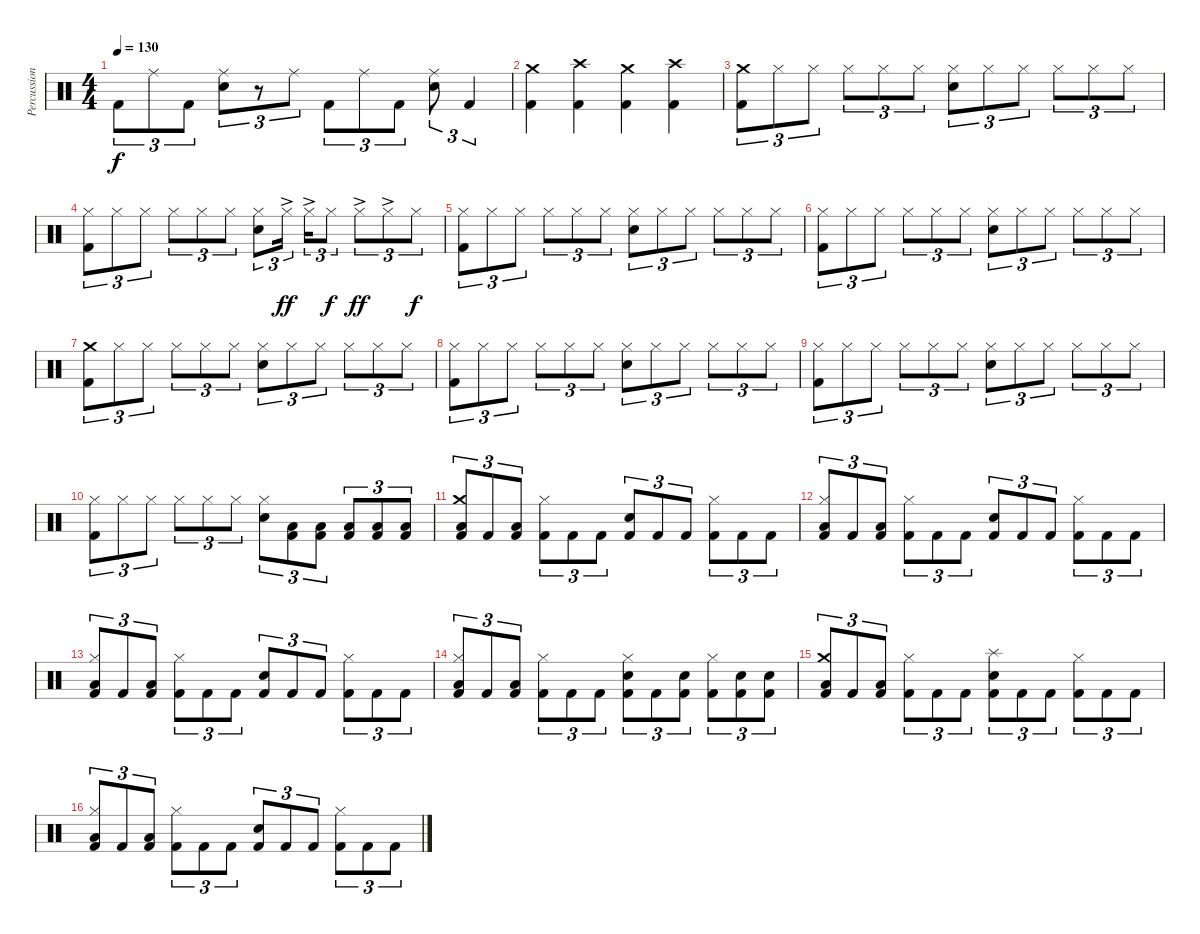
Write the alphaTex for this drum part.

\track ("Percussions" "Percussion") {instrument percussion}
\staff {score}
\articulation defaults
\ts (4 4)
\tempo 130
\clef neutral
\ks c "Kick (hit) 2".8{tu (3 2) dy f} "Ride (middle)".8{tu (3 2)} "Kick (hit) 2".8{tu (3 2)}
("Ride (middle)" "Electric Snare (hit)").8{tu (3 2)} r.8{tu (3 2)} "Ride (middle)".8{tu (3 2)} "Kick (hit) 2".8{tu (3 2)} "Ride (middle)".8{tu (3 2)} "Kick (hit) 2".8{tu (3 2)} ("Ride (middle)" "Electric Snare (hit)").8{tu (3 2)} "Kick (hit) 2".4{tu (3 2)} |
("Crash medium (hit)" "Kick (hit) 2").4 ("Crash high (hit)" "Kick (hit) 2").4 ("Crash medium (hit)" "Kick (hit) 2").4 ("Crash high (hit)" "Kick (hit) 2").4 |
("Crash medium (hit)" "Kick (hit) 2").8{tu (3 2)} "Hi-Hat (closed)".8{tu (3 2)} "Hi-Hat (closed)".8{tu (3 2)} "Hi-Hat (closed)".8{tu (3 2)} "Hi-Hat (closed)".8{tu (3 2)} "Hi-Hat (closed)".8{tu (3 2)} ("Hi-Hat (closed)" "Electric Snare (hit)").8{tu (3 2)} "Hi-Hat (closed)".8{tu (3 2)} "Hi-Hat (closed)".8{tu (3 2)} "Hi-Hat (closed)".8{tu (3 2)} "Hi-Hat (closed)".8{tu (3 2)} "Hi-Hat (closed)".8{tu (3 2)} |
("Hi-Hat (closed)" "Kick (hit) 2").8{tu (3 2)} "Hi-Hat (closed)".8{tu (3 2)} "Hi-Hat (closed)".8{tu (3 2)} "Hi-Hat (closed)".8{tu (3 2)} "Hi-Hat (closed)".8{tu (3 2)} "Hi-Hat (closed)".8{tu (3 2)} ("Hi-Hat (closed)" "Electric Snare (hit)").8{tu (3 2)} "Hi-Hat (closed)"{ac}.16{tu (3 2) dy ff beam splitsecondary} "Hi-Hat (closed)"{ac}.16{tu (3 2)} "Hi-Hat (closed)".8{tu (3 2) dy f} "Hi-Hat (closed)"{ac}.8{tu (3 2) dy ff} "Hi-Hat (closed)"{ac}.8{tu (3 2)} "Hi-Hat (closed)".8{tu (3 2) dy f} |
("Hi-Hat (closed)" "Kick (hit) 2").8{tu (3 2)} "Hi-Hat (closed)".8{tu (3 2)} "Hi-Hat (closed)".8{tu (3 2)} "Hi-Hat (closed)".8{tu (3 2)} "Hi-Hat (closed)".8{tu (3 2)} "Hi-Hat (closed)".8{tu (3 2)} ("Hi-Hat (closed)" "Electric Snare (hit)").8{tu (3 2)} "Hi-Hat (closed)".8{tu (3 2)} "Hi-Hat (closed)".8{tu (3 2)} "Hi-Hat (closed)".8{tu (3 2)} "Hi-Hat (closed)".8{tu (3 2)} "Hi-Hat (closed)".8{tu (3 2)} |
("Hi-Hat (closed)" "Kick (hit) 2").8{tu (3 2)} "Hi-Hat (closed)".8{tu (3 2)} "Hi-Hat (closed)".8{tu (3 2)} "Hi-Hat (closed)".8{tu (3 2)} "Hi-Hat (closed)".8{tu (3 2)} "Hi-Hat (closed)".8{tu (3 2)} ("Hi-Hat (closed)" "Electric Snare (hit)").8{tu (3 2)} "Hi-Hat (closed)".8{tu (3 2)} "Hi-Hat (closed)".8{tu (3 2)} "Hi-Hat (closed)".8{tu (3 2)} "Hi-Hat (closed)".8{tu (3 2)} "Hi-Hat (closed)".8{tu (3 2)} |
("Crash medium (hit)" "Kick (hit) 2").8{tu (3 2)} "Hi-Hat (closed)".8{tu (3 2)} "Hi-Hat (closed)".8{tu (3 2)} "Hi-Hat (closed)".8{tu (3 2)} "Hi-Hat (closed)".8{tu (3 2)} "Hi-Hat (closed)".8{tu (3 2)} ("Hi-Hat (closed)" "Electric Snare (hit)").8{tu (3 2)} "Hi-Hat (closed)".8{tu (3 2)} "Hi-Hat (closed)".8{tu (3 2)} "Hi-Hat (closed)".8{tu (3 2)} "Hi-Hat (closed)".8{tu (3 2)} "Hi-Hat (closed)".8{tu (3 2)} |
("Hi-Hat (closed)" "Kick (hit) 2").8{tu (3 2)} "Hi-Hat (closed)".8{tu (3 2)} "Hi-Hat (closed)".8{tu (3 2)} "Hi-Hat (closed)".8{tu (3 2)} "Hi-Hat (closed)".8{tu (3 2)} "Hi-Hat (closed)".8{tu (3 2)} ("Hi-Hat (closed)" "Electric Snare (hit)").8{tu (3 2)} "Hi-Hat (closed)".8{tu (3 2)} "Hi-Hat (closed)".8{tu (3 2)} "Hi-Hat (closed)".8{tu (3 2)} "Hi-Hat (closed)".8{tu (3 2)} "Hi-Hat (closed)".8{tu (3 2)} |
("Hi-Hat (closed)" "Kick (hit) 2").8{tu (3 2)} "Hi-Hat (closed)".8{tu (3 2)} "Hi-Hat (closed)".8{tu (3 2)} "Hi-Hat (closed)".8{tu (3 2)} "Hi-Hat (closed)".8{tu (3 2)} "Hi-Hat (closed)".8{tu (3 2)} ("Hi-Hat (closed)" "Electric Snare (hit)").8{tu (3 2)} "Hi-Hat (closed)".8{tu (3 2)} "Hi-Hat (closed)".8{tu (3 2)} "Hi-Hat (closed)".8{tu (3 2)} "Hi-Hat (closed)".8{tu (3 2)} "Hi-Hat (closed)".8{tu (3 2)} |
("Hi-Hat (closed)" "Kick (hit) 2").8{tu (3 2)} "Hi-Hat (closed)".8{tu (3 2)} "Hi-Hat (closed)".8{tu (3 2)} "Hi-Hat (closed)".8{tu (3 2)} "Hi-Hat (closed)".8{tu (3 2)} "Hi-Hat (closed)".8{tu (3 2)} ("Hi-Hat (closed)" "Electric Snare (hit)").8{tu (3 2)} ("Low Tom (hit)" "Kick (hit) 2").8{tu (3 2)} ("Low Tom (hit)" "Kick (hit) 2").8{tu (3 2)} ("Low Tom (hit)" "Kick (hit) 2").8{tu (3 2)} ("Low Tom (hit)" "Kick (hit) 2").8{tu (3 2)} ("Low Tom (hit)" "Kick (hit) 2").8{tu (3 2)} |
("Crash medium (hit)" "Low Tom (hit)" "Kick (hit) 2").8{tu (3 2)} "Kick (hit) 2".8{tu (3 2)} ("Low Tom (hit)" "Kick (hit) 2").8{tu (3 2)} ("Hi-Hat (closed)" "Kick (hit) 2").8{tu (3 2)} "Kick (hit) 2".8{tu (3 2)} "Kick (hit) 2".8{tu (3 2)} ("Electric Snare (hit)" "Kick (hit) 2").8{tu (3 2)} "Kick (hit) 2".8{tu (3 2)} "Kick (hit) 2".8{tu (3 2)} ("Hi-Hat (closed)" "Kick (hit) 2").8{tu (3 2)} "Kick (hit) 2".8{tu (3 2)} "Kick (hit) 2".8{tu (3 2)} |
("Hi-Hat (closed)" "Low Tom (hit)" "Kick (hit) 2").8{tu (3 2)} "Kick (hit) 2".8{tu (3 2)} ("Low Tom (hit)" "Kick (hit) 2").8{tu (3 2)} ("Hi-Hat (closed)" "Kick (hit) 2").8{tu (3 2)} "Kick (hit) 2".8{tu (3 2)} "Kick (hit) 2".8{tu (3 2)} ("Electric Snare (hit)" "Kick (hit) 2").8{tu (3 2)} "Kick (hit) 2".8{tu (3 2)} "Kick (hit) 2".8{tu (3 2)} ("Hi-Hat (closed)" "Kick (hit) 2").8{tu (3 2)} "Kick (hit) 2".8{tu (3 2)} "Kick (hit) 2".8{tu (3 2)} |
("Hi-Hat (closed)" "Low Tom (hit)" "Kick (hit) 2").8{tu (3 2)} "Kick (hit) 2".8{tu (3 2)} ("Low Tom (hit)" "Kick (hit) 2").8{tu (3 2)} ("Hi-Hat (closed)" "Kick (hit) 2").8{tu (3 2)} "Kick (hit) 2".8{tu (3 2)} "Kick (hit) 2".8{tu (3 2)} ("Electric Snare (hit)" "Kick (hit) 2").8{tu (3 2)} "Kick (hit) 2".8{tu (3 2)} "Kick (hit) 2".8{tu (3 2)} ("Hi-Hat (closed)" "Kick (hit) 2").8{tu (3 2)} "Kick (hit) 2".8{tu (3 2)} "Kick (hit) 2".8{tu (3 2)} |
("Hi-Hat (closed)" "Low Tom (hit)" "Kick (hit) 2").8{tu (3 2)} "Kick (hit) 2".8{tu (3 2)} ("Low Tom (hit)" "Kick (hit) 2").8{tu (3 2)} ("Hi-Hat (closed)" "Kick (hit) 2").8{tu (3 2)} "Kick (hit) 2".8{tu (3 2)} "Kick (hit) 2".8{tu (3 2)} ("Hi-Hat (closed)" "Electric Snare (hit)" "Kick (hit) 2").8{tu (3 2)} "Kick (hit) 2".8{tu (3 2)} ("Electric Snare (hit)" "Kick (hit) 2").8{tu (3 2)} ("Hi-Hat (closed)" "Kick (hit) 2").8{tu (3 2)} ("Electric Snare (hit)" "Kick (hit) 2").8{tu (3 2)} ("Electric Snare (hit)" "Kick (hit) 2").8{tu (3 2)} |
("Crash medium (hit)" "Low Tom (hit)" "Kick (hit) 2").8{tu (3 2)} "Kick (hit) 2".8{tu (3 2)} ("Low Tom (hit)" "Kick (hit) 2").8{tu (3 2)} ("Hi-Hat (closed)" "Kick (hit) 2").8{tu (3 2)} "Kick (hit) 2".8{tu (3 2)} "Kick (hit) 2".8{tu (3 2)} ("Splash (hit)" "Electric Snare (hit)" "Kick (hit) 2").8{tu (3 2)} "Kick (hit) 2".8{tu (3 2)} "Kick (hit) 2".8{tu (3 2)} ("Hi-Hat (closed)" "Kick (hit) 2").8{tu (3 2)} "Kick (hit) 2".8{tu (3 2)} "Kick (hit) 2".8{tu (3 2)} |
("Hi-Hat (closed)" "Low Tom (hit)" "Kick (hit) 2").8{tu (3 2)} "Kick (hit) 2".8{tu (3 2)} ("Low Tom (hit)" "Kick (hit) 2").8{tu (3 2)} ("Hi-Hat (closed)" "Kick (hit) 2").8{tu (3 2)} "Kick (hit) 2".8{tu (3 2)} "Kick (hit) 2".8{tu (3 2)} ("Electric Snare (hit)" "Kick (hit) 2").8{tu (3 2)} "Kick (hit) 2".8{tu (3 2)} "Kick (hit) 2".8{tu (3 2)} ("Hi-Hat (closed)" "Kick (hit) 2").8{tu (3 2)} "Kick (hit) 2".8{tu (3 2)} "Kick (hit) 2".8{tu (3 2)}
